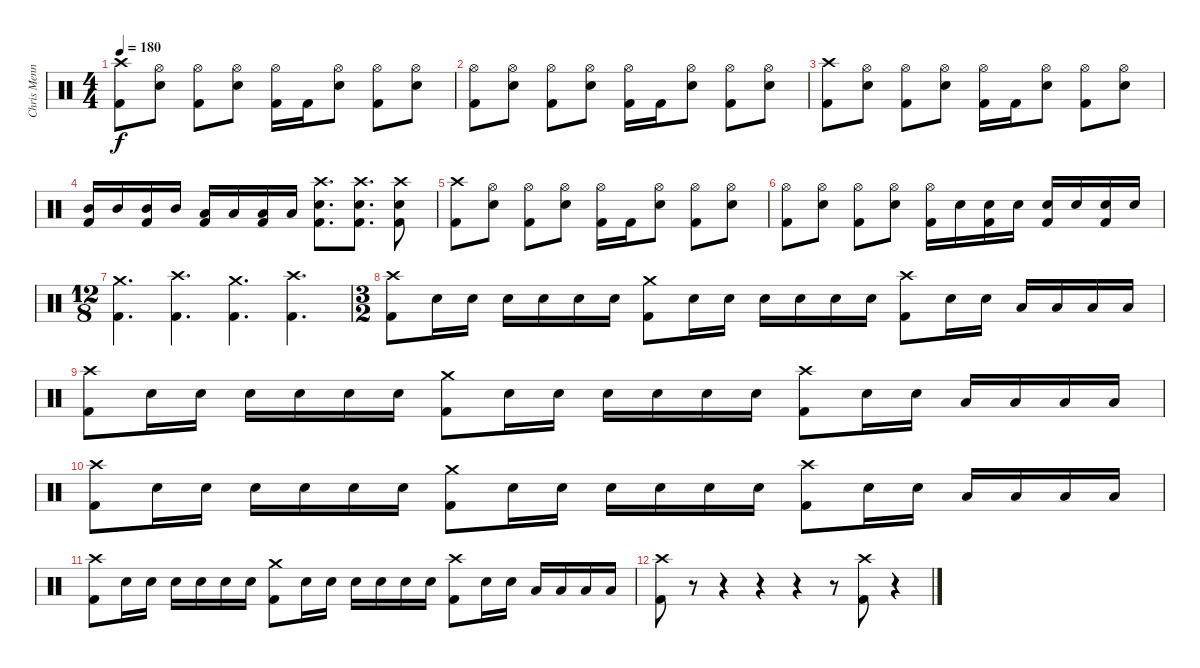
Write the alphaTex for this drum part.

\track ("Chris Menning" "Chris Menn") {instrument percussion}
\staff {score}
\articulation defaults
\ts (4 4)
\tempo 180
\clef neutral
\ks c
("Crash high (hit)" "Kick (hit) 2").8{dy f} ("Hi-Hat (open)" "Electric Snare (hit)").8 ("Hi-Hat (open)" "Kick (hit) 2").8 ("Hi-Hat (open)" "Electric Snare (hit)").8 ("Hi-Hat (open)" "Kick (hit) 2").16 "Kick (hit) 2".16 ("Hi-Hat (open)" "Electric Snare (hit)").8 ("Hi-Hat (open)" "Kick (hit) 2").8 ("Hi-Hat (open)" "Electric Snare (hit)").8 |
("Hi-Hat (open)" "Kick (hit) 2").8 ("Hi-Hat (open)" "Electric Snare (hit)").8 ("Hi-Hat (open)" "Kick (hit) 2").8 ("Hi-Hat (open)" "Electric Snare (hit)").8 ("Hi-Hat (open)" "Kick (hit) 2").16 "Kick (hit) 2".16 ("Hi-Hat (open)" "Electric Snare (hit)").8 ("Hi-Hat (open)" "Kick (hit) 2").8 ("Hi-Hat (open)" "Electric Snare (hit)").8 |
("Crash high (hit)" "Kick (hit) 2").8 ("Hi-Hat (open)" "Electric Snare (hit)").8 ("Hi-Hat (open)" "Kick (hit) 2").8 ("Hi-Hat (open)" "Electric Snare (hit)").8 ("Hi-Hat (open)" "Kick (hit) 2").16 "Kick (hit) 2".16 ("Hi-Hat (open)" "Electric Snare (hit)").8 ("Hi-Hat (open)" "Kick (hit) 2").8 ("Hi-Hat (open)" "Electric Snare (hit)").8 |
("Mid Tom (hit)" "Kick (hit) 2").16 "Mid Tom (hit)".16 ("Mid Tom (hit)" "Kick (hit) 2").16 "Mid Tom (hit)".16 ("Low Tom (hit)" "Kick (hit) 2").16 "Low Tom (hit)".16 ("Low Tom (hit)" "Kick (hit) 2").16 "Low Tom (hit)".16 ("Crash high (hit)" "Electric Snare (hit)" "Kick (hit) 2").8{d} ("Crash high (hit)" "Electric Snare (hit)" "Kick (hit) 2").8{d} ("Crash high (hit)" "Electric Snare (hit)" "Kick (hit) 2").8 |
("Crash high (hit)" "Kick (hit) 2").8 ("Hi-Hat (open)" "Electric Snare (hit)").8 ("Hi-Hat (open)" "Kick (hit) 2").8 ("Hi-Hat (open)" "Electric Snare (hit)").8 ("Hi-Hat (open)" "Kick (hit) 2").16 "Kick (hit) 2".16 ("Hi-Hat (open)" "Electric Snare (hit)").8 ("Hi-Hat (open)" "Kick (hit) 2").8 ("Hi-Hat (open)" "Electric Snare (hit)").8 |
("Hi-Hat (open)" "Kick (hit) 2").8 ("Hi-Hat (open)" "Electric Snare (hit)").8 ("Hi-Hat (open)" "Kick (hit) 2").8 ("Hi-Hat (open)" "Electric Snare (hit)").8 ("Hi-Hat (open)" "Kick (hit) 2").16 "Electric Snare (hit)".16 ("Electric Snare (hit)" "Kick (hit) 2").16 "Electric Snare (hit)".16 ("Electric Snare (hit)" "Kick (hit) 2").16 "Electric Snare (hit)".16 ("Electric Snare (hit)" "Kick (hit) 2").16 "Electric Snare (hit)".16 |
\ts (12 8)
("Crash medium (hit)" "Kick (hit) 2").4{d} ("Crash high (hit)" "Kick (hit) 2").4{d} ("Crash medium (hit)" "Kick (hit) 2").4{d} ("Crash high (hit)" "Kick (hit) 2").4{d} |
\ts (3 2)
("Crash high (hit)" "Kick (hit) 2").8 "Electric Snare (hit)".16 "Electric Snare (hit)".16 "Electric Snare (hit)".16 "Electric Snare (hit)".16 "Electric Snare (hit)".16 "Electric Snare (hit)".16 ("Crash medium (hit)" "Kick (hit) 2").8 "Electric Snare (hit)".16 "Electric Snare (hit)".16 "Electric Snare (hit)".16 "Electric Snare (hit)".16 "Electric Snare (hit)".16 "Electric Snare (hit)".16 ("Crash high (hit)" "Kick (hit) 2").8 "Electric Snare (hit)".16 "Electric Snare (hit)".16 "Low Tom (hit)".16 "Low Tom (hit)".16 "Low Tom (hit)".16 "Low Tom (hit)".16 |
("Crash high (hit)" "Kick (hit) 2").8 "Electric Snare (hit)".16 "Electric Snare (hit)".16 "Electric Snare (hit)".16 "Electric Snare (hit)".16 "Electric Snare (hit)".16 "Electric Snare (hit)".16 ("Crash medium (hit)" "Kick (hit) 2").8 "Electric Snare (hit)".16 "Electric Snare (hit)".16 "Electric Snare (hit)".16 "Electric Snare (hit)".16 "Electric Snare (hit)".16 "Electric Snare (hit)".16 ("Crash high (hit)" "Kick (hit) 2").8 "Electric Snare (hit)".16 "Electric Snare (hit)".16 "Low Tom (hit)".16 "Low Tom (hit)".16 "Low Tom (hit)".16 "Low Tom (hit)".16 |
("Crash high (hit)" "Kick (hit) 2").8 "Electric Snare (hit)".16 "Electric Snare (hit)".16 "Electric Snare (hit)".16 "Electric Snare (hit)".16 "Electric Snare (hit)".16 "Electric Snare (hit)".16 ("Crash medium (hit)" "Kick (hit) 2").8 "Electric Snare (hit)".16 "Electric Snare (hit)".16 "Electric Snare (hit)".16 "Electric Snare (hit)".16 "Electric Snare (hit)".16 "Electric Snare (hit)".16 ("Crash high (hit)" "Kick (hit) 2").8 "Electric Snare (hit)".16 "Electric Snare (hit)".16 "Low Tom (hit)".16 "Low Tom (hit)".16 "Low Tom (hit)".16 "Low Tom (hit)".16 |
("Crash high (hit)" "Kick (hit) 2").8 "Electric Snare (hit)".16 "Electric Snare (hit)".16 "Electric Snare (hit)".16 "Electric Snare (hit)".16 "Electric Snare (hit)".16 "Electric Snare (hit)".16 ("Crash medium (hit)" "Kick (hit) 2").8 "Electric Snare (hit)".16 "Electric Snare (hit)".16 "Electric Snare (hit)".16 "Electric Snare (hit)".16 "Electric Snare (hit)".16 "Electric Snare (hit)".16 ("Crash high (hit)" "Kick (hit) 2").8 "Electric Snare (hit)".16 "Electric Snare (hit)".16 "Low Tom (hit)".16 "Low Tom (hit)".16 "Low Tom (hit)".16 "Low Tom (hit)".16 |
("Crash high (hit)" "Kick (hit) 2").8 r.8 r.4 r.4 r.4 r.8 ("Crash high (hit)" "Kick (hit) 2").8 r.4
